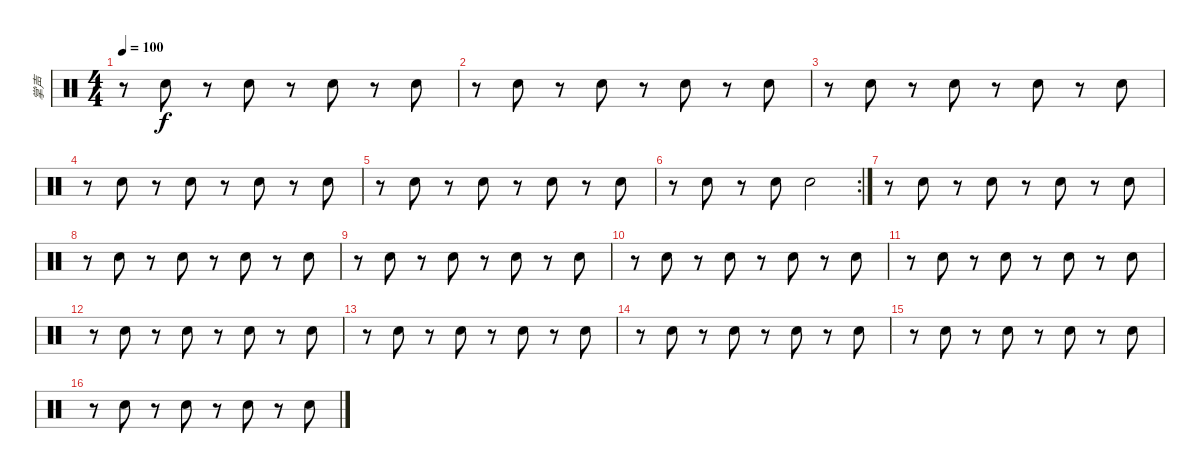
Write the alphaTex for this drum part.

\track ("掌声" "掌声") {instrument percussion}
\staff {score}
\articulation defaults
\ts (4 4)
\tempo 100
\clef neutral
\ks c
r.8{dy f} "Hand Clap (hit)".8 r.8 "Hand Clap (hit)".8 r.8 "Hand Clap (hit)".8 r.8 "Hand Clap (hit)".8 |
r.8 "Hand Clap (hit)".8 r.8 "Hand Clap (hit)".8 r.8 "Hand Clap (hit)".8 r.8 "Hand Clap (hit)".8 |
r.8 "Hand Clap (hit)".8 r.8 "Hand Clap (hit)".8 r.8 "Hand Clap (hit)".8 r.8 "Hand Clap (hit)".8 |
r.8 "Hand Clap (hit)".8 r.8 "Hand Clap (hit)".8 r.8 "Hand Clap (hit)".8 r.8 "Hand Clap (hit)".8 |
r.8 "Hand Clap (hit)".8 r.8 "Hand Clap (hit)".8 r.8 "Hand Clap (hit)".8 r.8 "Hand Clap (hit)".8 |
\rc 2
r.8 "Hand Clap (hit)".8 r.8 "Hand Clap (hit)".8 "Hand Clap (hit)".2 |
r.8 "Hand Clap (hit)".8 r.8 "Hand Clap (hit)".8 r.8 "Hand Clap (hit)".8 r.8 "Hand Clap (hit)".8 |
r.8 "Hand Clap (hit)".8 r.8 "Hand Clap (hit)".8 r.8 "Hand Clap (hit)".8 r.8 "Hand Clap (hit)".8 |
r.8 "Hand Clap (hit)".8 r.8 "Hand Clap (hit)".8 r.8 "Hand Clap (hit)".8 r.8 "Hand Clap (hit)".8 |
r.8 "Hand Clap (hit)".8 r.8 "Hand Clap (hit)".8 r.8 "Hand Clap (hit)".8 r.8 "Hand Clap (hit)".8 |
r.8 "Hand Clap (hit)".8 r.8 "Hand Clap (hit)".8 r.8 "Hand Clap (hit)".8 r.8 "Hand Clap (hit)".8 |
r.8 "Hand Clap (hit)".8 r.8 "Hand Clap (hit)".8 r.8 "Hand Clap (hit)".8 r.8 "Hand Clap (hit)".8 |
r.8 "Hand Clap (hit)".8 r.8 "Hand Clap (hit)".8 r.8 "Hand Clap (hit)".8 r.8 "Hand Clap (hit)".8 |
r.8 "Hand Clap (hit)".8 r.8 "Hand Clap (hit)".8 r.8 "Hand Clap (hit)".8 r.8 "Hand Clap (hit)".8 |
r.8 "Hand Clap (hit)".8 r.8 "Hand Clap (hit)".8 r.8 "Hand Clap (hit)".8 r.8 "Hand Clap (hit)".8 |
r.8 "Hand Clap (hit)".8 r.8 "Hand Clap (hit)".8 r.8 "Hand Clap (hit)".8 r.8 "Hand Clap (hit)".8
